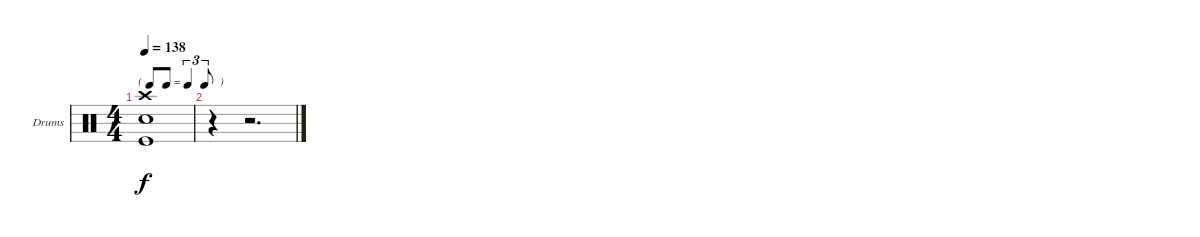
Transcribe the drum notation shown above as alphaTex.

\bracketExtendMode groupsimilarinstruments
\firstSystemTrackNameOrientation horizontal
\otherSystemsTrackNameOrientation horizontal
\track ("Drumkit" "Drums") {instrument percussion}
\staff {score}
\articulation defaults
\ts (4 4)
\tf triplet8th
\tempo 138
\clef neutral
\ks c
("Crash high (hit)" "Snare (hit) 2" "Kick (hit)").1{dy f} |
r.4 r.2{d}
